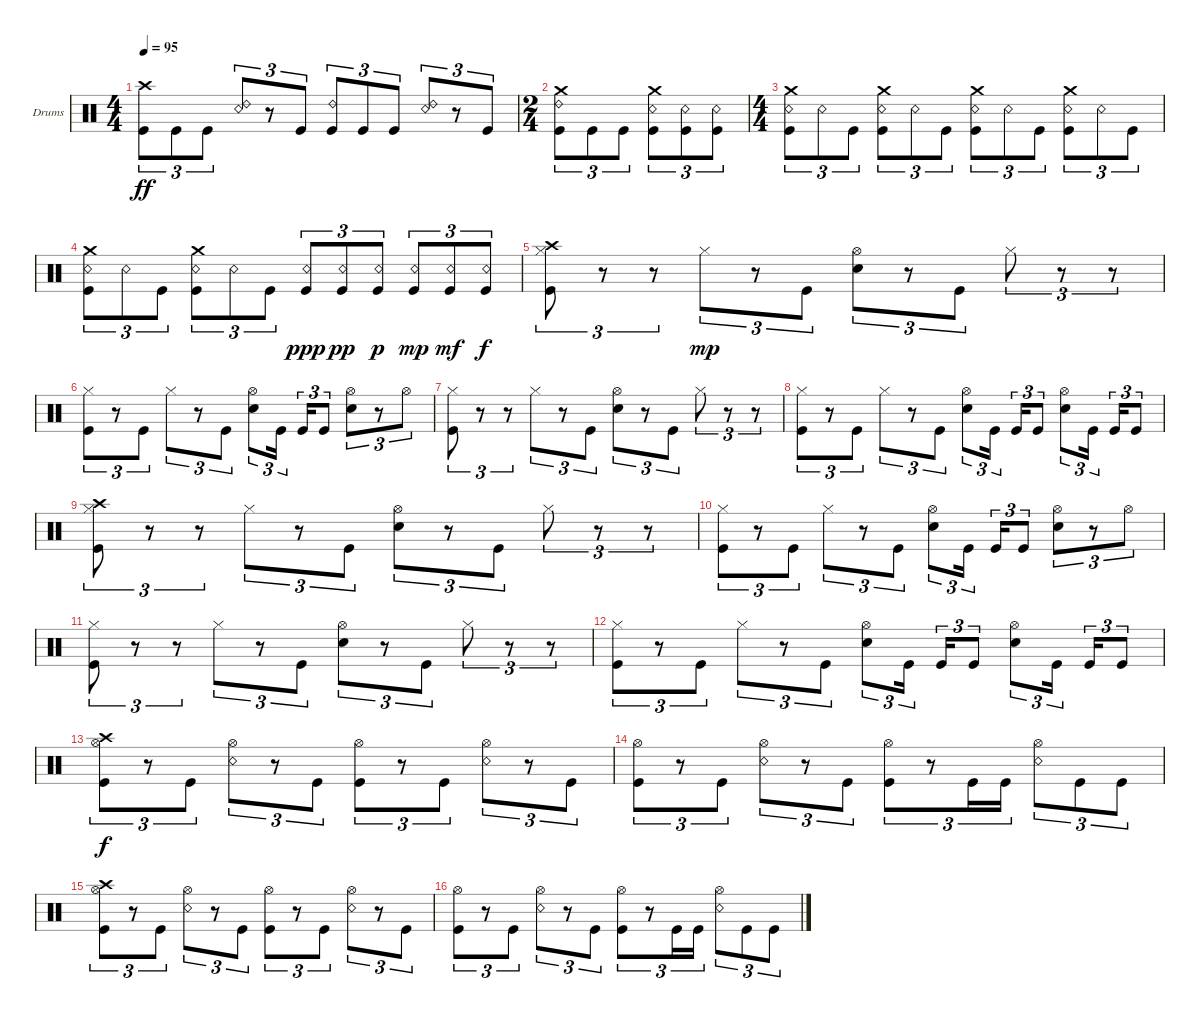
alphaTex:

\defaultSystemsLayout 4
\bracketExtendMode groupsimilarinstruments
\firstSystemTrackNameOrientation horizontal
\otherSystemsTrackNameOrientation horizontal
\track ("Drumkit" "Drums") {instrument percussion}
\staff {score}
\articulation defaults
\ts (4 4)
\tempo 95
\clef neutral
\ks c
("Kick (hit)" "Crash high (hit)").8{tu (3 2) dy ff} "Kick (hit)".8{tu (3 2)} "Kick (hit)".8{tu (3 2)} ("Ride (bell) 2" "Snare (rim shot)").8{tu (3 2)} r.8{tu (3 2)} "Kick (hit)".8{tu (3 2)} ("Kick (hit)" "Ride (bell) 2").8{tu (3 2)} "Kick (hit)".8{tu (3 2)} "Kick (hit)".8{tu (3 2)} ("Ride (bell) 2" "Snare (rim shot)").8{tu (3 2)} r.8{tu (3 2)} "Kick (hit)".8{tu (3 2)} |
\ts (2 4)
("Kick (hit)" "Ride (bell) 2" "Crash medium (hit)").8{tu (3 2)} "Kick (hit)".8{tu (3 2)} "Kick (hit)".8{tu (3 2)} ("Snare (rim shot)" "Crash medium (hit)" "Kick (hit)").8{tu (3 2)} ("Kick (hit)" "Snare (rim shot)").8{tu (3 2)} ("Kick (hit)" "Snare (rim shot)").8{tu (3 2)} |
\ts (4 4)
("Snare (rim shot)" "Crash medium (hit)" "Kick (hit)").8{tu (3 2)} "Snare (rim shot)".8{tu (3 2)} "Kick (hit)".8{tu (3 2)} ("Snare (rim shot)" "Crash medium (hit)" "Kick (hit)").8{tu (3 2)} "Snare (rim shot)".8{tu (3 2)} "Kick (hit)".8{tu (3 2)} ("Snare (rim shot)" "Crash medium (hit)" "Kick (hit)").8{tu (3 2)} "Snare (rim shot)".8{tu (3 2)} "Kick (hit)".8{tu (3 2)} ("Snare (rim shot)" "Crash medium (hit)" "Kick (hit)").8{tu (3 2)} "Snare (rim shot)".8{tu (3 2)} "Kick (hit)".8{tu (3 2)} |
("Snare (rim shot)" "Crash medium (hit)" "Kick (hit)").8{tu (3 2)} "Snare (rim shot)".8{tu (3 2)} "Kick (hit)".8{tu (3 2)} ("Snare (rim shot)" "Crash medium (hit)" "Kick (hit)").8{tu (3 2)} "Snare (rim shot)".8{tu (3 2)} "Kick (hit)".8{tu (3 2)} ("Snare (rim shot)" "Kick (hit)").8{tu (3 2) dy ppp} ("Snare (rim shot)" "Kick (hit)").8{tu (3 2) dy pp} ("Kick (hit)" "Snare (rim shot)").8{tu (3 2) dy p} ("Snare (rim shot)" "Kick (hit)").8{tu (3 2) dy mp} ("Kick (hit)" "Snare (rim shot)").8{tu (3 2) dy mf} ("Snare (rim shot)" "Kick (hit)").8{tu (3 2) dy f} |
("Kick (hit)" "Hi-Hat (closed)" "Crash high (hit)").8{tu (3 2)} r.8{tu (3 2)} r.8{tu (3 2)} "Hi-Hat (closed)".8{tu (3 2) dy mp} r.8{tu (3 2)} "Kick (hit)".8{tu (3 2)} ("Hi-Hat (open)" "Snare (hit) 2").8{tu (3 2)} r.8{tu (3 2)} "Kick (hit)".8{tu (3 2)} "Hi-Hat (closed)".8{tu (3 2)} r.8{tu (3 2)} r.8{tu (3 2)} |
("Hi-Hat (closed)" "Kick (hit)").8{tu (3 2)} r.8{tu (3 2)} "Kick (hit)".8{tu (3 2)} "Hi-Hat (closed)".8{tu (3 2)} r.8{tu (3 2)} "Kick (hit)".8{tu (3 2)} ("Hi-Hat (open)" "Snare (hit) 2").8{tu (3 2)} "Kick (hit)".16{tu (3 2)} "Kick (hit)".16{tu (3 2)} "Kick (hit)".8{tu (3 2)} ("Hi-Hat (open)" "Snare (hit) 2").8{tu (3 2)} r.8{tu (3 2)} "Hi-Hat (open)".8{tu (3 2)} |
("Kick (hit)" "Hi-Hat (closed)").8{tu (3 2)} r.8{tu (3 2)} r.8{tu (3 2)} "Hi-Hat (closed)".8{tu (3 2)} r.8{tu (3 2)} "Kick (hit)".8{tu (3 2)} ("Hi-Hat (open)" "Snare (hit) 2").8{tu (3 2)} r.8{tu (3 2)} "Kick (hit)".8{tu (3 2)} "Hi-Hat (closed)".8{tu (3 2)} r.8{tu (3 2)} r.8{tu (3 2)} |
("Hi-Hat (closed)" "Kick (hit)").8{tu (3 2)} r.8{tu (3 2)} "Kick (hit)".8{tu (3 2)} "Hi-Hat (closed)".8{tu (3 2)} r.8{tu (3 2)} "Kick (hit)".8{tu (3 2)} ("Hi-Hat (open)" "Snare (hit) 2").8{tu (3 2)} "Kick (hit)".16{tu (3 2)} "Kick (hit)".16{tu (3 2)} "Kick (hit)".8{tu (3 2)} ("Hi-Hat (open)" "Snare (hit) 2").8{tu (3 2)} "Kick (hit)".16{tu (3 2)} "Kick (hit)".16{tu (3 2)} "Kick (hit)".8{tu (3 2)} |
("Kick (hit)" "Hi-Hat (closed)" "Crash high (hit)").8{tu (3 2)} r.8{tu (3 2)} r.8{tu (3 2)} "Hi-Hat (closed)".8{tu (3 2)} r.8{tu (3 2)} "Kick (hit)".8{tu (3 2)} ("Hi-Hat (open)" "Snare (hit) 2").8{tu (3 2)} r.8{tu (3 2)} "Kick (hit)".8{tu (3 2)} "Hi-Hat (closed)".8{tu (3 2)} r.8{tu (3 2)} r.8{tu (3 2)} |
("Hi-Hat (closed)" "Kick (hit)").8{tu (3 2)} r.8{tu (3 2)} "Kick (hit)".8{tu (3 2)} "Hi-Hat (closed)".8{tu (3 2)} r.8{tu (3 2)} "Kick (hit)".8{tu (3 2)} ("Hi-Hat (open)" "Snare (hit) 2").8{tu (3 2)} "Kick (hit)".16{tu (3 2)} "Kick (hit)".16{tu (3 2)} "Kick (hit)".8{tu (3 2)} ("Hi-Hat (open)" "Snare (hit) 2").8{tu (3 2)} r.8{tu (3 2)} "Hi-Hat (open)".8{tu (3 2)} |
("Kick (hit)" "Hi-Hat (closed)").8{tu (3 2)} r.8{tu (3 2)} r.8{tu (3 2)} "Hi-Hat (closed)".8{tu (3 2)} r.8{tu (3 2)} "Kick (hit)".8{tu (3 2)} ("Hi-Hat (open)" "Snare (hit) 2").8{tu (3 2)} r.8{tu (3 2)} "Kick (hit)".8{tu (3 2)} "Hi-Hat (closed)".8{tu (3 2)} r.8{tu (3 2)} r.8{tu (3 2)} |
("Hi-Hat (closed)" "Kick (hit)").8{tu (3 2)} r.8{tu (3 2)} "Kick (hit)".8{tu (3 2)} "Hi-Hat (closed)".8{tu (3 2)} r.8{tu (3 2)} "Kick (hit)".8{tu (3 2)} ("Hi-Hat (open)" "Snare (hit) 2").8{tu (3 2)} "Kick (hit)".16{tu (3 2)} "Kick (hit)".16{tu (3 2)} "Kick (hit)".8{tu (3 2)} ("Hi-Hat (open)" "Snare (hit) 2").8{tu (3 2)} "Kick (hit)".16{tu (3 2)} "Kick (hit)".16{tu (3 2)} "Kick (hit)".8{tu (3 2)} |
("Hi-Hat (open)" "Kick (hit)" "Crash high (hit)").8{tu (3 2) dy f} r.8{tu (3 2)} "Kick (hit)".8{tu (3 2)} ("Hi-Hat (open)" "Snare (rim shot)").8{tu (3 2)} r.8{tu (3 2)} "Kick (hit)".8{tu (3 2)} ("Hi-Hat (open)" "Kick (hit)").8{tu (3 2)} r.8{tu (3 2)} "Kick (hit)".8{tu (3 2)} ("Hi-Hat (open)" "Snare (rim shot)").8{tu (3 2)} r.8{tu (3 2)} "Kick (hit)".8{tu (3 2)} |
("Hi-Hat (open)" "Kick (hit)").8{tu (3 2)} r.8{tu (3 2)} "Kick (hit)".8{tu (3 2)} ("Hi-Hat (open)" "Snare (rim shot)").8{tu (3 2)} r.8{tu (3 2)} "Kick (hit)".8{tu (3 2)} ("Hi-Hat (open)" "Kick (hit)").8{tu (3 2)} r.8{tu (3 2)} "Kick (hit)".16{tu (3 2)} "Kick (hit)".16{tu (3 2)} ("Hi-Hat (open)" "Snare (rim shot)").8{tu (3 2)} "Kick (hit)".8{tu (3 2)} "Kick (hit)".8{tu (3 2)} |
("Hi-Hat (open)" "Kick (hit)" "Crash high (hit)").8{tu (3 2)} r.8{tu (3 2)} "Kick (hit)".8{tu (3 2)} ("Hi-Hat (open)" "Snare (rim shot)").8{tu (3 2)} r.8{tu (3 2)} "Kick (hit)".8{tu (3 2)} ("Hi-Hat (open)" "Kick (hit)").8{tu (3 2)} r.8{tu (3 2)} "Kick (hit)".8{tu (3 2)} ("Hi-Hat (open)" "Snare (rim shot)").8{tu (3 2)} r.8{tu (3 2)} "Kick (hit)".8{tu (3 2)} |
("Hi-Hat (open)" "Kick (hit)").8{tu (3 2)} r.8{tu (3 2)} "Kick (hit)".8{tu (3 2)} ("Hi-Hat (open)" "Snare (rim shot)").8{tu (3 2)} r.8{tu (3 2)} "Kick (hit)".8{tu (3 2)} ("Hi-Hat (open)" "Kick (hit)").8{tu (3 2)} r.8{tu (3 2)} "Kick (hit)".16{tu (3 2)} "Kick (hit)".16{tu (3 2)} ("Hi-Hat (open)" "Snare (rim shot)").8{tu (3 2)} "Kick (hit)".8{tu (3 2)} "Kick (hit)".8{tu (3 2)}
